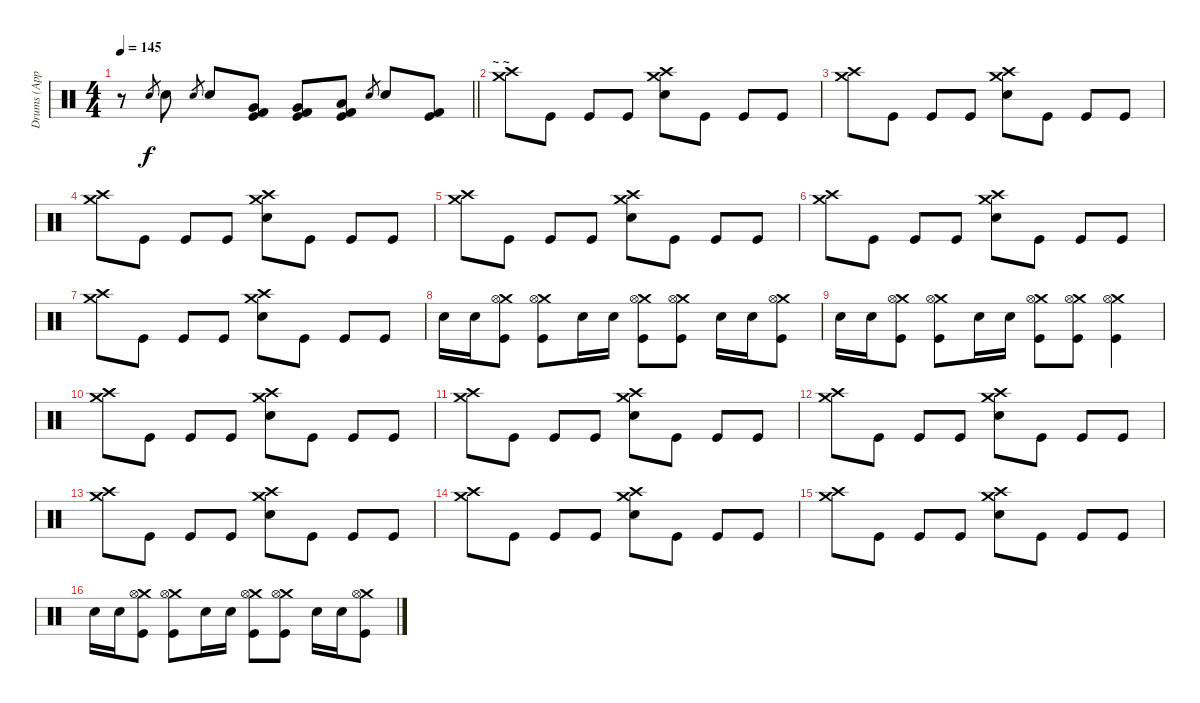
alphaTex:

\track ("Drums (Approx.)" "Drums (App") {instrument percussion}
\staff {score}
\articulation defaults
\ts (4 4)
\tempo 145
\clef neutral
\barLineRight lightlight
\ks c
r.8{dy f} "Electric Snare (hit)".8{gr} "Electric Snare (hit)".8 "Electric Snare (hit)".8{gr} "Electric Snare (hit)".8 ("Very Low Tom (hit)" "Kick (hit) 2" "Kick (hit)").8 ("Very Low Tom (hit)" "Kick (hit) 2" "Kick (hit)").8 ("Low Floor Tom (hit)" "Kick (hit) 2" "Kick (hit)").8 "Electric Snare (hit)".8{gr} "Electric Snare (hit)".8 ("Kick (hit) 2" "Kick (hit)").8 |
\section ("" "~ ~")
("Crash medium (hit)" "Crash high (hit)").8 "Kick (hit)".8 "Kick (hit)".8 "Kick (hit)".8 ("Crash medium (hit)" "Crash high (hit)" "Electric Snare (hit)").8 "Kick (hit)".8 "Kick (hit)".8 "Kick (hit)".8 |
("Crash medium (hit)" "Crash high (hit)").8 "Kick (hit)".8 "Kick (hit)".8 "Kick (hit)".8 ("Crash medium (hit)" "Crash high (hit)" "Electric Snare (hit)").8 "Kick (hit)".8 "Kick (hit)".8 "Kick (hit)".8 |
("Crash medium (hit)" "Crash high (hit)").8 "Kick (hit)".8 "Kick (hit)".8 "Kick (hit)".8 ("Crash medium (hit)" "Crash high (hit)" "Electric Snare (hit)").8 "Kick (hit)".8 "Kick (hit)".8 "Kick (hit)".8 |
("Crash medium (hit)" "Crash high (hit)").8 "Kick (hit)".8 "Kick (hit)".8 "Kick (hit)".8 ("Crash medium (hit)" "Crash high (hit)" "Electric Snare (hit)").8 "Kick (hit)".8 "Kick (hit)".8 "Kick (hit)".8 |
("Crash medium (hit)" "Crash high (hit)").8 "Kick (hit)".8 "Kick (hit)".8 "Kick (hit)".8 ("Crash medium (hit)" "Crash high (hit)" "Electric Snare (hit)").8 "Kick (hit)".8 "Kick (hit)".8 "Kick (hit)".8 |
("Crash medium (hit)" "Crash high (hit)").8 "Kick (hit)".8 "Kick (hit)".8 "Kick (hit)".8 ("Crash medium (hit)" "Crash high (hit)" "Electric Snare (hit)").8 "Kick (hit)".8 "Kick (hit)".8 "Kick (hit)".8 |
"Electric Snare (hit)".16 "Electric Snare (hit)".16 ("Crash medium (hit)" "Hi-Hat (open)" "Kick (hit)").8 ("Crash medium (hit)" "Hi-Hat (open)" "Kick (hit)").8 "Electric Snare (hit)".16 "Electric Snare (hit)".16 ("Crash medium (hit)" "Hi-Hat (open)" "Kick (hit)").8 ("Crash medium (hit)" "Hi-Hat (open)" "Kick (hit)").8 "Electric Snare (hit)".16 "Electric Snare (hit)".16 ("Crash medium (hit)" "Hi-Hat (open)" "Kick (hit)").8 |
"Electric Snare (hit)".16 "Electric Snare (hit)".16 ("Crash medium (hit)" "Hi-Hat (open)" "Kick (hit)").8 ("Crash medium (hit)" "Hi-Hat (open)" "Kick (hit)").8 "Electric Snare (hit)".16 "Electric Snare (hit)".16 ("Crash medium (hit)" "Hi-Hat (open)" "Kick (hit)").8 ("Crash medium (hit)" "Hi-Hat (open)" "Kick (hit)").8 ("Crash medium (hit)" "Hi-Hat (open)" "Kick (hit)").4 |
("Crash medium (hit)" "Crash high (hit)").8 "Kick (hit)".8 "Kick (hit)".8 "Kick (hit)".8 ("Crash medium (hit)" "Crash high (hit)" "Electric Snare (hit)").8 "Kick (hit)".8 "Kick (hit)".8 "Kick (hit)".8 |
("Crash medium (hit)" "Crash high (hit)").8 "Kick (hit)".8 "Kick (hit)".8 "Kick (hit)".8 ("Crash medium (hit)" "Crash high (hit)" "Electric Snare (hit)").8 "Kick (hit)".8 "Kick (hit)".8 "Kick (hit)".8 |
("Crash medium (hit)" "Crash high (hit)").8 "Kick (hit)".8 "Kick (hit)".8 "Kick (hit)".8 ("Crash medium (hit)" "Crash high (hit)" "Electric Snare (hit)").8 "Kick (hit)".8 "Kick (hit)".8 "Kick (hit)".8 |
("Crash medium (hit)" "Crash high (hit)").8 "Kick (hit)".8 "Kick (hit)".8 "Kick (hit)".8 ("Crash medium (hit)" "Crash high (hit)" "Electric Snare (hit)").8 "Kick (hit)".8 "Kick (hit)".8 "Kick (hit)".8 |
("Crash medium (hit)" "Crash high (hit)").8 "Kick (hit)".8 "Kick (hit)".8 "Kick (hit)".8 ("Crash medium (hit)" "Crash high (hit)" "Electric Snare (hit)").8 "Kick (hit)".8 "Kick (hit)".8 "Kick (hit)".8 |
("Crash medium (hit)" "Crash high (hit)").8 "Kick (hit)".8 "Kick (hit)".8 "Kick (hit)".8 ("Crash medium (hit)" "Crash high (hit)" "Electric Snare (hit)").8 "Kick (hit)".8 "Kick (hit)".8 "Kick (hit)".8 |
"Electric Snare (hit)".16 "Electric Snare (hit)".16 ("Crash medium (hit)" "Hi-Hat (open)" "Kick (hit)").8 ("Crash medium (hit)" "Hi-Hat (open)" "Kick (hit)").8 "Electric Snare (hit)".16 "Electric Snare (hit)".16 ("Crash medium (hit)" "Hi-Hat (open)" "Kick (hit)").8 ("Crash medium (hit)" "Hi-Hat (open)" "Kick (hit)").8 "Electric Snare (hit)".16 "Electric Snare (hit)".16 ("Crash medium (hit)" "Hi-Hat (open)" "Kick (hit)").8
